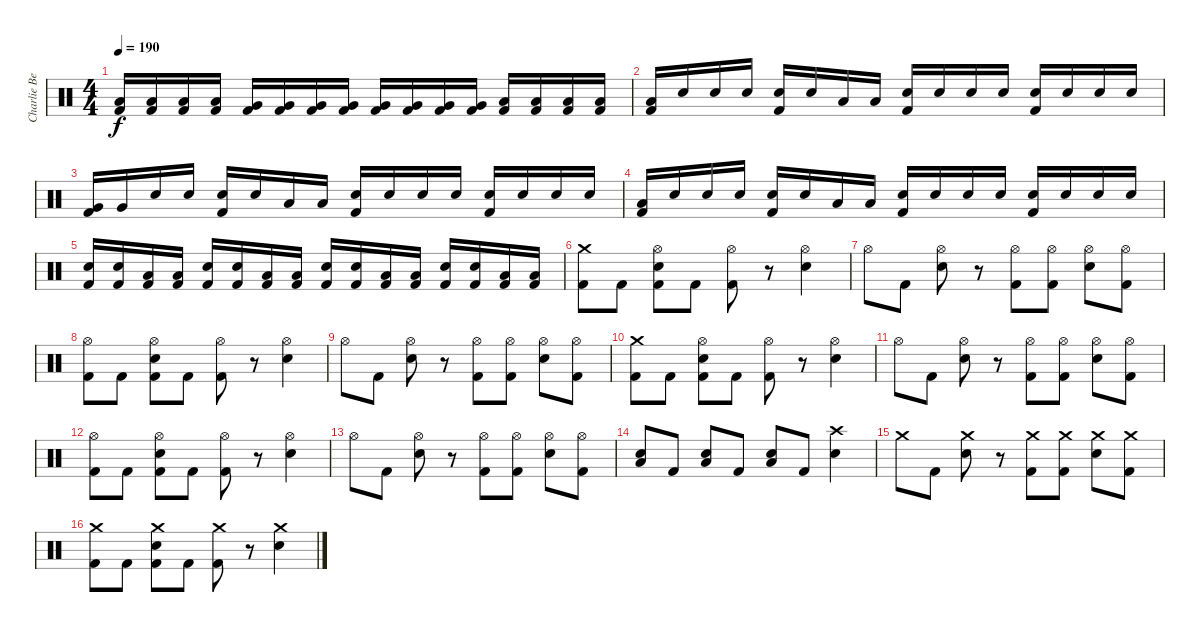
\track ("Charlie Benante" "Charlie Be") {instrument percussion}
\staff {score}
\articulation defaults
\ts (4 4)
\tempo 190
\clef neutral
\ks c
("Low Tom (hit)" "Kick (hit) 2").16{dy f} ("Low Tom (hit)" "Kick (hit) 2").16 ("Low Tom (hit)" "Kick (hit) 2").16 ("Low Tom (hit)" "Kick (hit) 2").16 ("Very Low Tom (hit)" "Kick (hit) 2").16 ("Very Low Tom (hit)" "Kick (hit) 2").16 ("Very Low Tom (hit)" "Kick (hit) 2").16 ("Very Low Tom (hit)" "Kick (hit) 2").16 ("Very Low Tom (hit)" "Kick (hit) 2").16 ("Very Low Tom (hit)" "Kick (hit) 2").16 ("Very Low Tom (hit)" "Kick (hit) 2").16 ("Very Low Tom (hit)" "Kick (hit) 2").16 ("Low Floor Tom (hit)" "Kick (hit) 2").16 ("Low Floor Tom (hit)" "Kick (hit) 2").16 ("Low Floor Tom (hit)" "Kick (hit) 2").16 ("Low Floor Tom (hit)" "Kick (hit) 2").16 |
("Low Tom (hit)" "Kick (hit) 2").16 "Snare (hit) 2".16 "Snare (hit) 2".16 "Snare (hit) 2".16 ("Snare (hit) 2" "Kick (hit) 2").16 "Snare (hit) 2".16 "Low Tom (hit)".16 "Low Tom (hit)".16 ("Snare (hit) 2" "Kick (hit) 2").16 "Snare (hit) 2".16 "Snare (hit) 2".16 "Snare (hit) 2".16 ("Snare (hit) 2" "Kick (hit) 2").16 "Snare (hit) 2".16 "Snare (hit) 2".16 "Snare (hit) 2".16 |
("Very Low Tom (hit)" "Kick (hit) 2").16 "Very Low Tom (hit)".16 "Snare (hit) 2".16 "Snare (hit) 2".16 ("Snare (hit) 2" "Kick (hit) 2").16 "Snare (hit) 2".16 "Low Floor Tom (hit)".16 "Low Floor Tom (hit)".16 ("Snare (hit) 2" "Kick (hit) 2").16 "Snare (hit) 2".16 "Snare (hit) 2".16 "Snare (hit) 2".16 ("Snare (hit) 2" "Kick (hit) 2").16 "Snare (hit) 2".16 "Snare (hit) 2".16 "Snare (hit) 2".16 |
("Low Tom (hit)" "Kick (hit) 2").16 "Snare (hit) 2".16 "Snare (hit) 2".16 "Snare (hit) 2".16 ("Snare (hit) 2" "Kick (hit) 2").16 "Snare (hit) 2".16 "Low Tom (hit)".16 "Low Tom (hit)".16 ("Snare (hit) 2" "Kick (hit) 2").16 "Snare (hit) 2".16 "Snare (hit) 2".16 "Snare (hit) 2".16 ("Snare (hit) 2" "Kick (hit) 2").16 "Snare (hit) 2".16 "Snare (hit) 2".16 "Snare (hit) 2".16 |
("Snare (hit) 2" "Kick (hit) 2").16 ("Snare (hit) 2" "Kick (hit) 2").16 ("Low Tom (hit)" "Kick (hit) 2").16 ("Low Tom (hit)" "Kick (hit) 2").16 ("Snare (hit) 2" "Kick (hit) 2").16 ("Snare (hit) 2" "Kick (hit) 2").16 ("Low Tom (hit)" "Kick (hit) 2").16 ("Low Tom (hit)" "Kick (hit) 2").16 ("Snare (hit) 2" "Kick (hit) 2").16 ("Snare (hit) 2" "Kick (hit) 2").16 ("Low Tom (hit)" "Kick (hit) 2").16 ("Low Tom (hit)" "Kick (hit) 2").16 ("Snare (hit) 2" "Kick (hit) 2").16 ("Snare (hit) 2" "Kick (hit) 2").16 ("Low Tom (hit)" "Kick (hit) 2").16 ("Low Tom (hit)" "Kick (hit) 2").16 |
("Crash medium (hit)" "Kick (hit) 2").8 "Kick (hit) 2".8 ("Snare (hit) 2" "Hi-Hat (open)" "Kick (hit) 2").8 "Kick (hit) 2".8 ("Hi-Hat (open)" "Kick (hit) 2").8 r.8 ("Snare (hit) 2" "Hi-Hat (open)").4 |
"Hi-Hat (open)".8 "Kick (hit) 2".8 ("Snare (hit) 2" "Hi-Hat (open)").8 r.8 ("Hi-Hat (open)" "Kick (hit) 2").8 ("Hi-Hat (open)" "Kick (hit) 2").8 ("Snare (hit) 2" "Hi-Hat (open)").8 ("Hi-Hat (open)" "Kick (hit) 2").8 |
("Hi-Hat (open)" "Kick (hit) 2").8 "Kick (hit) 2".8 ("Snare (hit) 2" "Hi-Hat (open)" "Kick (hit) 2").8 "Kick (hit) 2".8 ("Hi-Hat (open)" "Kick (hit) 2").8 r.8 ("Snare (hit) 2" "Hi-Hat (open)").4 |
"Hi-Hat (open)".8 "Kick (hit) 2".8 ("Snare (hit) 2" "Hi-Hat (open)").8 r.8 ("Hi-Hat (open)" "Kick (hit) 2").8 ("Hi-Hat (open)" "Kick (hit) 2").8 ("Snare (hit) 2" "Hi-Hat (open)").8 ("Hi-Hat (open)" "Kick (hit) 2").8 |
("Crash medium (hit)" "Kick (hit) 2").8 "Kick (hit) 2".8 ("Snare (hit) 2" "Hi-Hat (open)" "Kick (hit) 2").8 "Kick (hit) 2".8 ("Hi-Hat (open)" "Kick (hit) 2").8 r.8 ("Snare (hit) 2" "Hi-Hat (open)").4 |
"Hi-Hat (open)".8 "Kick (hit) 2".8 ("Snare (hit) 2" "Hi-Hat (open)").8 r.8 ("Hi-Hat (open)" "Kick (hit) 2").8 ("Hi-Hat (open)" "Kick (hit) 2").8 ("Snare (hit) 2" "Hi-Hat (open)").8 ("Hi-Hat (open)" "Kick (hit) 2").8 |
("Hi-Hat (open)" "Kick (hit) 2").8 "Kick (hit) 2".8 ("Snare (hit) 2" "Hi-Hat (open)" "Kick (hit) 2").8 "Kick (hit) 2".8 ("Hi-Hat (open)" "Kick (hit) 2").8 r.8 ("Snare (hit) 2" "Hi-Hat (open)").4 |
"Hi-Hat (open)".8 "Kick (hit) 2".8 ("Snare (hit) 2" "Hi-Hat (open)").8 r.8 ("Hi-Hat (open)" "Kick (hit) 2").8 ("Hi-Hat (open)" "Kick (hit) 2").8 ("Snare (hit) 2" "Hi-Hat (open)").8 ("Hi-Hat (open)" "Kick (hit) 2").8 |
("Low Tom (hit)" "Snare (hit) 2").8 "Kick (hit) 2".8 ("Low Tom (hit)" "Snare (hit) 2").8 "Kick (hit) 2".8 ("Low Tom (hit)" "Snare (hit) 2").8 "Kick (hit) 2".8 ("Snare (hit) 2" "Crash high (hit)").4 |
"Crash medium (hit)".8 "Kick (hit) 2".8 ("Snare (hit) 2" "Crash medium (hit)").8 r.8 ("Crash medium (hit)" "Kick (hit) 2").8 ("Crash medium (hit)" "Kick (hit) 2").8 ("Snare (hit) 2" "Crash medium (hit)").8 ("Crash medium (hit)" "Kick (hit) 2").8 |
("Crash medium (hit)" "Kick (hit) 2").8 "Kick (hit) 2".8 ("Snare (hit) 2" "Crash medium (hit)" "Kick (hit) 2").8 "Kick (hit) 2".8 ("Crash medium (hit)" "Kick (hit) 2").8 r.8 ("Snare (hit) 2" "Crash medium (hit)").4
